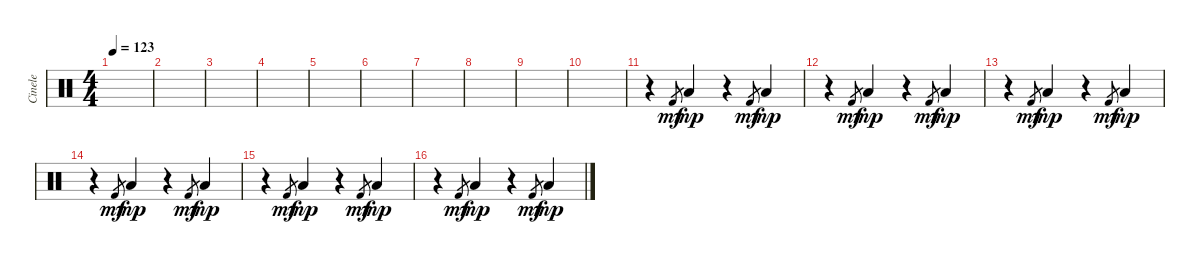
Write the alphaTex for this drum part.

\track ("Cinele" "Cinele") {instrument percussion}
\staff {score}
\articulation defaults
\ts (4 4)
\tempo 123
\clef neutral
\ks c
|
|
|
|
|
|
|
|
|
|
r.4 "Kick (hit) 2".8{gr dy mf} "Low Tom (hit)".4{dy mp} r.4 "Kick (hit) 2".8{gr dy mf} "Low Tom (hit)".4{dy mp} |
r.4 "Kick (hit) 2".8{gr dy mf} "Low Tom (hit)".4{dy mp} r.4 "Kick (hit) 2".8{gr dy mf} "Low Tom (hit)".4{dy mp} |
r.4 "Kick (hit) 2".8{gr dy mf} "Low Tom (hit)".4{dy mp} r.4 "Kick (hit) 2".8{gr dy mf} "Low Tom (hit)".4{dy mp} |
r.4 "Kick (hit) 2".8{gr dy mf} "Low Tom (hit)".4{dy mp} r.4 "Kick (hit) 2".8{gr dy mf} "Low Tom (hit)".4{dy mp} |
r.4 "Kick (hit) 2".8{gr dy mf} "Low Tom (hit)".4{dy mp} r.4 "Kick (hit) 2".8{gr dy mf} "Low Tom (hit)".4{dy mp} |
r.4 "Kick (hit) 2".8{gr dy mf} "Low Tom (hit)".4{dy mp} r.4 "Kick (hit) 2".8{gr dy mf} "Low Tom (hit)".4{dy mp}
